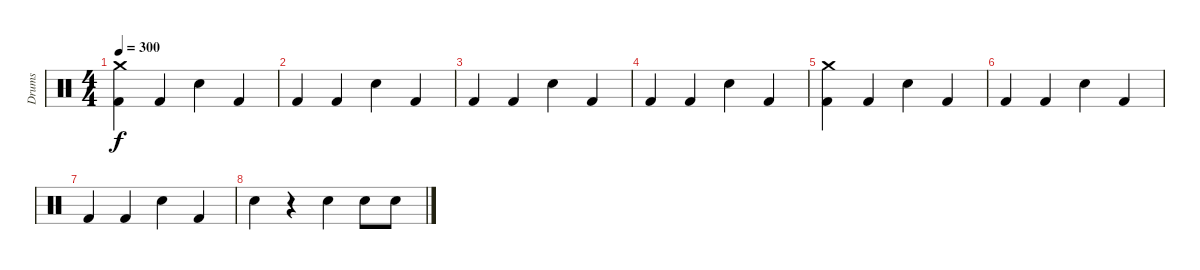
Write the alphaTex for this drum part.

\track ("Drums" "Drums") {instrument percussion}
\staff {score}
\articulation defaults
\ts (4 4)
\tempo 300
\clef neutral
\ks c
("Crash medium (hit)" "Kick (hit) 2").4{dy f} "Kick (hit) 2".4 "Snare (hit) 2".4 "Kick (hit) 2".4 |
"Kick (hit) 2".4 "Kick (hit) 2".4 "Snare (hit) 2".4 "Kick (hit) 2".4 |
"Kick (hit) 2".4 "Kick (hit) 2".4 "Snare (hit) 2".4 "Kick (hit) 2".4 |
"Kick (hit) 2".4 "Kick (hit) 2".4 "Snare (hit) 2".4 "Kick (hit) 2".4 |
("Crash medium (hit)" "Kick (hit) 2").4 "Kick (hit) 2".4 "Snare (hit) 2".4 "Kick (hit) 2".4 |
"Kick (hit) 2".4 "Kick (hit) 2".4 "Snare (hit) 2".4 "Kick (hit) 2".4 |
"Kick (hit) 2".4 "Kick (hit) 2".4 "Snare (hit) 2".4 "Kick (hit) 2".4 |
"Snare (hit) 2".4 r.4 "Snare (hit) 2".4 "Snare (hit) 2".8 "Snare (hit) 2".8
